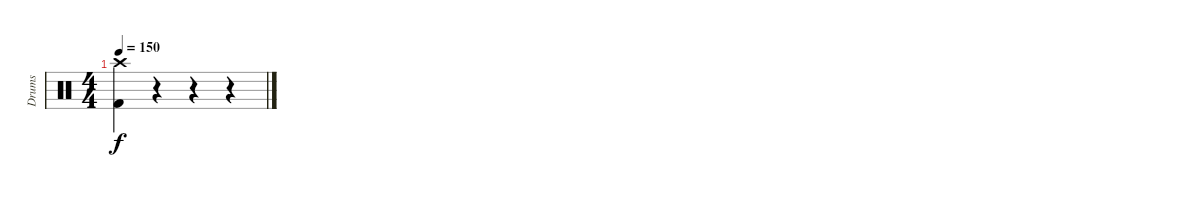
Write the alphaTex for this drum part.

\track ("Drums" "Drums") {instrument percussion}
\staff {score}
\articulation defaults
\ts (4 4)
\tempo 150
\clef neutral
\ks c
("Crash high (hit)" "Kick (hit) 2").4{dy f} r.4 r.4 r.4
